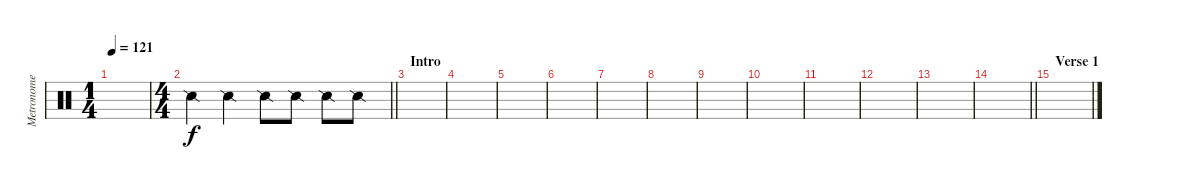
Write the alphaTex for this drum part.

\track ("Metronome" "Metronome") {instrument percussion}
\staff {score}
\articulation defaults
\ts (1 4)
\tempo 121
\clef neutral
\ks c
|
\ts (4 4)
\barLineRight lightlight "Snare (side stick) 2".4 "Snare (side stick) 2".4 "Snare (side stick) 2".8 "Snare (side stick) 2".8 "Snare (side stick) 2".8 "Snare (side stick) 2".8
|
\section ("" "Intro")
|
|
|
|
|
|
|
|
|
|
|
\barLineRight lightlight
|
\section ("" "Verse 1")
